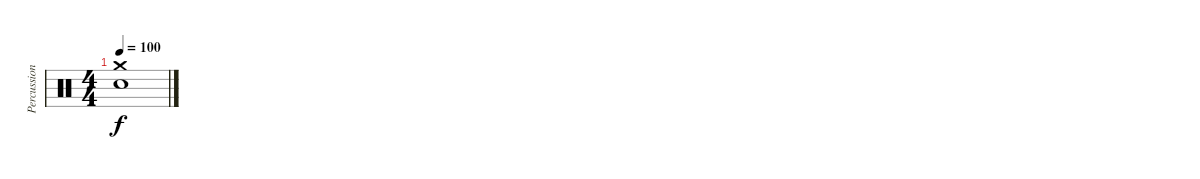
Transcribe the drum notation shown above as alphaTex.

\track ("Percussion" "Percussion") {instrument percussion}
\staff {score}
\articulation defaults
\ts (4 4)
\tempo 100
\clef neutral
\ks c
("Snare (hit) 2" "Crash medium (hit)").1{dy f}
